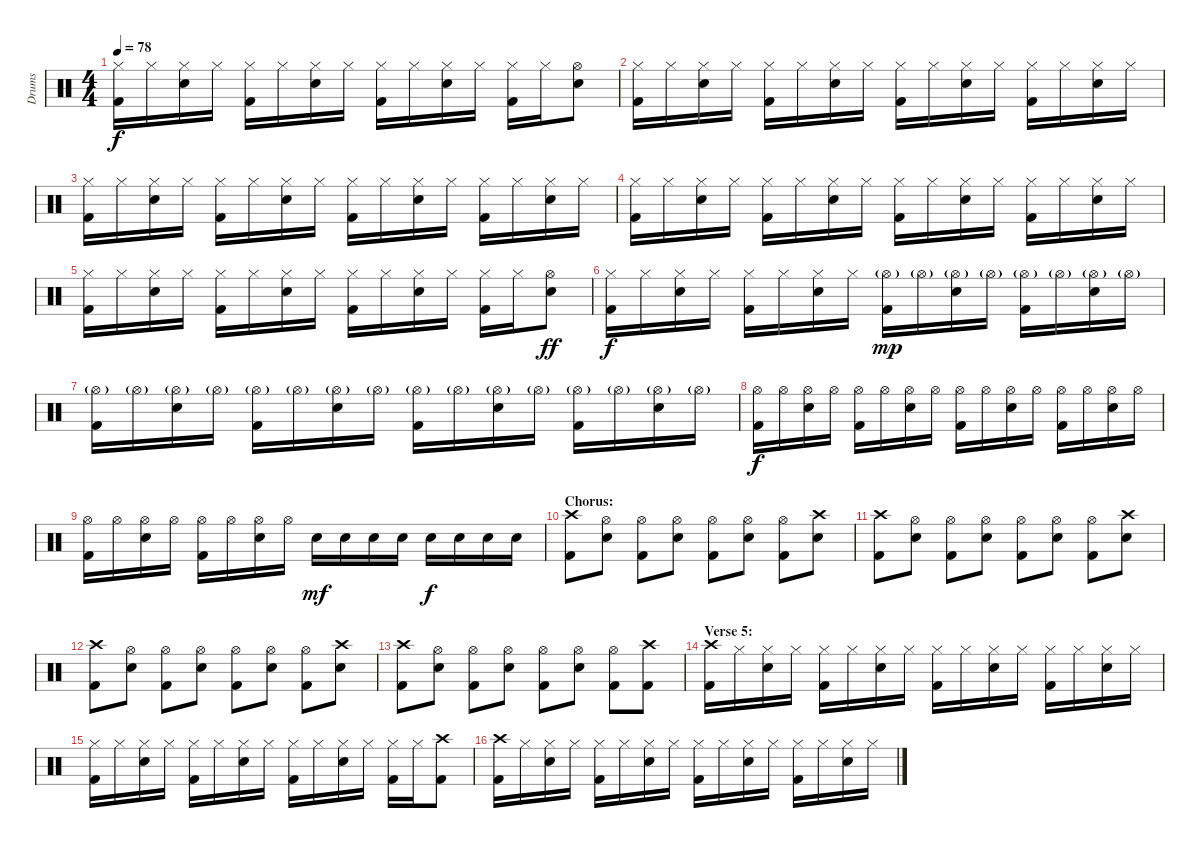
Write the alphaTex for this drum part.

\track ("Drums" "Drums") {instrument percussion}
\staff {score}
\articulation defaults
\ts (4 4)
\tempo 78
\clef neutral
\ks c
("Hi-Hat (closed)" "Kick (hit) 2").16{dy f} "Hi-Hat (closed)".16 ("Hi-Hat (closed)" "Snare (hit) 2").16 "Hi-Hat (closed)".16 ("Hi-Hat (closed)" "Kick (hit) 2").16 "Hi-Hat (closed)".16 ("Hi-Hat (closed)" "Snare (hit) 2").16 "Hi-Hat (closed)".16 ("Hi-Hat (closed)" "Kick (hit) 2").16 "Hi-Hat (closed)".16 ("Hi-Hat (closed)" "Snare (hit) 2").16 "Hi-Hat (closed)".16 ("Hi-Hat (closed)" "Kick (hit) 2").16 "Hi-Hat (closed)".16 ("Hi-Hat (open)" "Snare (hit) 2").8 |
("Hi-Hat (closed)" "Kick (hit) 2").16 "Hi-Hat (closed)".16 ("Hi-Hat (closed)" "Snare (hit) 2").16 "Hi-Hat (closed)".16 ("Hi-Hat (closed)" "Kick (hit) 2").16 "Hi-Hat (closed)".16 ("Hi-Hat (closed)" "Snare (hit) 2").16 "Hi-Hat (closed)".16 ("Hi-Hat (closed)" "Kick (hit) 2").16 "Hi-Hat (closed)".16 ("Hi-Hat (closed)" "Snare (hit) 2").16 "Hi-Hat (closed)".16 ("Hi-Hat (closed)" "Kick (hit) 2").16 "Hi-Hat (closed)".16 ("Hi-Hat (closed)" "Snare (hit) 2").16 "Hi-Hat (closed)".16 |
("Hi-Hat (closed)" "Kick (hit) 2").16 "Hi-Hat (closed)".16 ("Hi-Hat (closed)" "Snare (hit) 2").16 "Hi-Hat (closed)".16 ("Hi-Hat (closed)" "Kick (hit) 2").16 "Hi-Hat (closed)".16 ("Hi-Hat (closed)" "Snare (hit) 2").16 "Hi-Hat (closed)".16 ("Hi-Hat (closed)" "Kick (hit) 2").16 "Hi-Hat (closed)".16 ("Hi-Hat (closed)" "Snare (hit) 2").16 "Hi-Hat (closed)".16 ("Hi-Hat (closed)" "Kick (hit) 2").16 "Hi-Hat (closed)".16 ("Hi-Hat (closed)" "Snare (hit) 2").16 "Hi-Hat (closed)".16 |
("Hi-Hat (closed)" "Kick (hit) 2").16 "Hi-Hat (closed)".16 ("Hi-Hat (closed)" "Snare (hit) 2").16 "Hi-Hat (closed)".16 ("Hi-Hat (closed)" "Kick (hit) 2").16 "Hi-Hat (closed)".16 ("Hi-Hat (closed)" "Snare (hit) 2").16 "Hi-Hat (closed)".16 ("Hi-Hat (closed)" "Kick (hit) 2").16 "Hi-Hat (closed)".16 ("Hi-Hat (closed)" "Snare (hit) 2").16 "Hi-Hat (closed)".16 ("Hi-Hat (closed)" "Kick (hit) 2").16 "Hi-Hat (closed)".16 ("Hi-Hat (closed)" "Snare (hit) 2").16 "Hi-Hat (closed)".16 |
("Hi-Hat (closed)" "Kick (hit) 2").16 "Hi-Hat (closed)".16 ("Hi-Hat (closed)" "Snare (hit) 2").16 "Hi-Hat (closed)".16 ("Hi-Hat (closed)" "Kick (hit) 2").16 "Hi-Hat (closed)".16 ("Hi-Hat (closed)" "Snare (hit) 2").16 "Hi-Hat (closed)".16 ("Hi-Hat (closed)" "Kick (hit) 2").16 "Hi-Hat (closed)".16 ("Hi-Hat (closed)" "Snare (hit) 2").16 "Hi-Hat (closed)".16 ("Hi-Hat (closed)" "Kick (hit) 2").16 "Hi-Hat (closed)".16 ("Hi-Hat (open)" "Snare (hit) 2").8{dy ff} |
("Hi-Hat (closed)" "Kick (hit) 2").16{dy f} "Hi-Hat (closed)".16 ("Hi-Hat (closed)" "Snare (hit) 2").16 "Hi-Hat (closed)".16 ("Hi-Hat (closed)" "Kick (hit) 2").16 "Hi-Hat (closed)".16 ("Hi-Hat (closed)" "Snare (hit) 2").16 "Hi-Hat (closed)".16 ("Hi-Hat (open)"{g} "Kick (hit) 2").16{dy mp} "Hi-Hat (open)"{g}.16 ("Hi-Hat (open)"{g} "Snare (hit) 2").16 "Hi-Hat (open)"{g}.16 ("Hi-Hat (open)"{g} "Kick (hit) 2").16 "Hi-Hat (open)"{g}.16 ("Hi-Hat (open)"{g} "Snare (hit) 2").16 "Hi-Hat (open)"{g}.16 |
("Hi-Hat (open)"{g} "Kick (hit) 2").16 "Hi-Hat (open)"{g}.16 ("Hi-Hat (open)"{g} "Snare (hit) 2").16 "Hi-Hat (open)"{g}.16 ("Hi-Hat (open)"{g} "Kick (hit) 2").16 "Hi-Hat (open)"{g}.16 ("Hi-Hat (open)"{g} "Snare (hit) 2").16 "Hi-Hat (open)"{g}.16 ("Hi-Hat (open)"{g} "Kick (hit) 2").16 "Hi-Hat (open)"{g}.16 ("Hi-Hat (open)"{g} "Snare (hit) 2").16 "Hi-Hat (open)"{g}.16 ("Hi-Hat (open)"{g} "Kick (hit) 2").16 "Hi-Hat (open)"{g}.16 ("Hi-Hat (open)"{g} "Snare (hit) 2").16 "Hi-Hat (open)"{g}.16 |
("Hi-Hat (open)" "Kick (hit) 2").16{dy f} "Hi-Hat (open)".16 ("Hi-Hat (open)" "Snare (hit) 2").16 "Hi-Hat (open)".16 ("Hi-Hat (open)" "Kick (hit) 2").16 "Hi-Hat (open)".16 ("Hi-Hat (open)" "Snare (hit) 2").16 "Hi-Hat (open)".16 ("Hi-Hat (open)" "Kick (hit) 2").16 "Hi-Hat (open)".16 ("Hi-Hat (open)" "Snare (hit) 2").16 "Hi-Hat (open)".16 ("Hi-Hat (open)" "Kick (hit) 2").16 "Hi-Hat (open)".16 ("Hi-Hat (open)" "Snare (hit) 2").16 "Hi-Hat (open)".16 |
("Hi-Hat (open)" "Kick (hit) 2").16 "Hi-Hat (open)".16 ("Hi-Hat (open)" "Snare (hit) 2").16 "Hi-Hat (open)".16 ("Hi-Hat (open)" "Kick (hit) 2").16 "Hi-Hat (open)".16 ("Hi-Hat (open)" "Snare (hit) 2").16 "Hi-Hat (open)".16 "Snare (hit) 2".16{dy mf} "Snare (hit) 2".16 "Snare (hit) 2".16 "Snare (hit) 2".16 "Snare (hit) 2".16{dy f} "Snare (hit) 2".16 "Snare (hit) 2".16 "Snare (hit) 2".16 |
\section ("" "Chorus:")
("Crash high (hit)" "Kick (hit) 2").8 ("Hi-Hat (open)" "Snare (hit) 2").8 ("Hi-Hat (open)" "Kick (hit) 2").8 ("Hi-Hat (open)" "Snare (hit) 2").8 ("Hi-Hat (open)" "Kick (hit) 2").8 ("Hi-Hat (open)" "Snare (hit) 2").8 ("Hi-Hat (open)" "Kick (hit) 2").8 ("Crash high (hit)" "Snare (hit) 2").8 |
("Crash high (hit)" "Kick (hit) 2").8 ("Hi-Hat (open)" "Snare (hit) 2").8 ("Hi-Hat (open)" "Kick (hit) 2").8 ("Hi-Hat (open)" "Snare (hit) 2").8 ("Hi-Hat (open)" "Kick (hit) 2").8 ("Hi-Hat (open)" "Snare (hit) 2").8 ("Hi-Hat (open)" "Kick (hit) 2").8 ("Crash high (hit)" "Snare (hit) 2").8 |
("Crash high (hit)" "Kick (hit) 2").8 ("Hi-Hat (open)" "Snare (hit) 2").8 ("Hi-Hat (open)" "Kick (hit) 2").8 ("Hi-Hat (open)" "Snare (hit) 2").8 ("Hi-Hat (open)" "Kick (hit) 2").8 ("Hi-Hat (open)" "Snare (hit) 2").8 ("Hi-Hat (open)" "Kick (hit) 2").8 ("Crash high (hit)" "Snare (hit) 2").8 |
("Crash high (hit)" "Kick (hit) 2").8 ("Hi-Hat (open)" "Snare (hit) 2").8 ("Hi-Hat (open)" "Kick (hit) 2").8 ("Hi-Hat (open)" "Snare (hit) 2").8 ("Hi-Hat (open)" "Kick (hit) 2").8 ("Hi-Hat (open)" "Snare (hit) 2").8 ("Hi-Hat (open)" "Kick (hit) 2").8 ("Crash high (hit)" "Kick (hit) 2").8 |
\section ("" "Verse 5:")
("Crash high (hit)" "Kick (hit) 2").16 "Hi-Hat (closed)".16 ("Hi-Hat (closed)" "Snare (hit) 2").16 "Hi-Hat (closed)".16 ("Hi-Hat (closed)" "Kick (hit) 2").16 "Hi-Hat (closed)".16 ("Hi-Hat (closed)" "Snare (hit) 2").16 "Hi-Hat (closed)".16 ("Hi-Hat (closed)" "Kick (hit) 2").16 "Hi-Hat (closed)".16 ("Hi-Hat (closed)" "Snare (hit) 2").16 "Hi-Hat (closed)".16 ("Hi-Hat (closed)" "Kick (hit) 2").16 "Hi-Hat (closed)".16 ("Hi-Hat (closed)" "Snare (hit) 2").16 "Hi-Hat (closed)".16 |
("Hi-Hat (closed)" "Kick (hit) 2").16 "Hi-Hat (closed)".16 ("Hi-Hat (closed)" "Snare (hit) 2").16 "Hi-Hat (closed)".16 ("Hi-Hat (closed)" "Kick (hit) 2").16 "Hi-Hat (closed)".16 ("Hi-Hat (closed)" "Snare (hit) 2").16 "Hi-Hat (closed)".16 ("Hi-Hat (closed)" "Kick (hit) 2").16 "Hi-Hat (closed)".16 ("Hi-Hat (closed)" "Snare (hit) 2").16 "Hi-Hat (closed)".16 ("Hi-Hat (closed)" "Kick (hit) 2").16 "Hi-Hat (closed)".16 ("Crash high (hit)" "Kick (hit) 2").8 |
("Crash high (hit)" "Kick (hit) 2").16 "Hi-Hat (closed)".16 ("Hi-Hat (closed)" "Snare (hit) 2").16 "Hi-Hat (closed)".16 ("Hi-Hat (closed)" "Kick (hit) 2").16 "Hi-Hat (closed)".16 ("Hi-Hat (closed)" "Snare (hit) 2").16 "Hi-Hat (closed)".16 ("Hi-Hat (closed)" "Kick (hit) 2").16 "Hi-Hat (closed)".16 ("Hi-Hat (closed)" "Snare (hit) 2").16 "Hi-Hat (closed)".16 ("Hi-Hat (closed)" "Kick (hit) 2").16 "Hi-Hat (closed)".16 ("Hi-Hat (closed)" "Snare (hit) 2").16 "Hi-Hat (closed)".16
